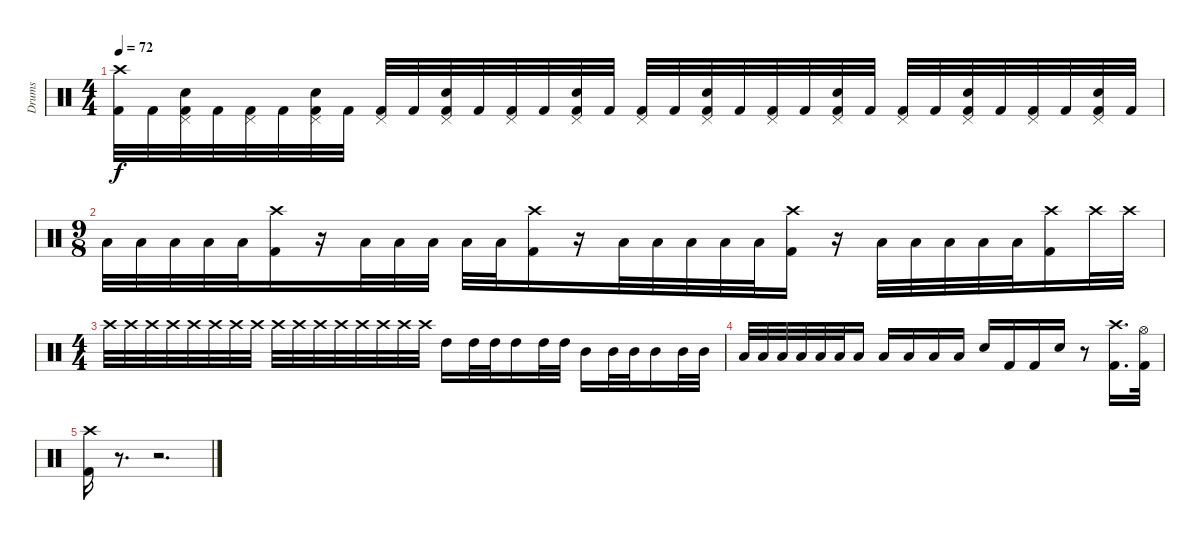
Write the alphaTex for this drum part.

\track ("Drums" "Drums") {instrument percussion}
\staff {score}
\articulation defaults
\ts (4 4)
\tempo 72
\clef neutral
\ks c
("Crash high (hit)" "Kick (hit) 2").32{dy f} "Kick (hit) 2".32 ("Pedal Hi-Hat (hit)" "Snare (hit) 2" "Kick (hit) 2").32 "Kick (hit) 2".32 ("Pedal Hi-Hat (hit)" "Kick (hit) 2").32 "Kick (hit) 2".32 ("Pedal Hi-Hat (hit)" "Snare (hit) 2" "Kick (hit) 2").32 "Kick (hit) 2".32 ("Pedal Hi-Hat (hit)" "Kick (hit) 2").32 "Kick (hit) 2".32 ("Pedal Hi-Hat (hit)" "Snare (hit) 2" "Kick (hit) 2").32 "Kick (hit) 2".32 ("Pedal Hi-Hat (hit)" "Kick (hit) 2").32 "Kick (hit) 2".32 ("Pedal Hi-Hat (hit)" "Snare (hit) 2" "Kick (hit) 2").32 "Kick (hit) 2".32 ("Pedal Hi-Hat (hit)" "Kick (hit) 2").32 "Kick (hit) 2".32 ("Pedal Hi-Hat (hit)" "Snare (hit) 2" "Kick (hit) 2").32 "Kick (hit) 2".32 ("Pedal Hi-Hat (hit)" "Kick (hit) 2").32 "Kick (hit) 2".32 ("Pedal Hi-Hat (hit)" "Snare (hit) 2" "Kick (hit) 2").32 "Kick (hit) 2".32 ("Pedal Hi-Hat (hit)" "Kick (hit) 2").32 "Kick (hit) 2".32 ("Pedal Hi-Hat (hit)" "Snare (hit) 2" "Kick (hit) 2").32 "Kick (hit) 2".32 ("Pedal Hi-Hat (hit)" "Kick (hit) 2").32 "Kick (hit) 2".32 ("Pedal Hi-Hat (hit)" "Snare (hit) 2" "Kick (hit) 2").32 "Kick (hit) 2".32 |
\ts (9 8)
"Low Tom (hit)".32 "Low Tom (hit)".32 "Low Tom (hit)".32 "Low Tom (hit)".32 "Low Tom (hit)".32 ("Crash high (hit)" "Kick (hit) 2").16 r.16 "Low Tom (hit)".32 "Low Tom (hit)".32 "Low Tom (hit)".32 "Low Tom (hit)".32 "Low Tom (hit)".32 ("Crash high (hit)" "Kick (hit) 2").16 r.16 "Low Tom (hit)".32 "Low Tom (hit)".32 "Low Tom (hit)".32 "Low Tom (hit)".32 "Low Tom (hit)".32 ("Crash high (hit)" "Kick (hit) 2").16 r.16 "Low Tom (hit)".32 "Low Tom (hit)".32 "Low Tom (hit)".32 "Low Tom (hit)".32 "Low Tom (hit)".32 ("Crash high (hit)" "Kick (hit) 2").16 "Crash high (hit)".32 "Crash high (hit)".32 |
\ts (4 4)
"Crash high (hit)".32 "Crash high (hit)".32 "Crash high (hit)".32 "Crash high (hit)".32 "Crash high (hit)".32 "Crash high (hit)".32 "Crash high (hit)".32 "Crash high (hit)".32 "Crash high (hit)".32 "Crash high (hit)".32 "Crash high (hit)".32 "Crash high (hit)".32 "Crash high (hit)".32 "Crash high (hit)".32 "Crash high (hit)".32 "Crash high (hit)".32 "High Tom (hit)".16 "High Tom (hit)".32 "High Tom (hit)".32 "High Tom (hit)".16 "High Tom (hit)".32 "High Tom (hit)".32 "Mid Tom (hit)".16 "Mid Tom (hit)".32 "Mid Tom (hit)".32 "Mid Tom (hit)".16 "Mid Tom (hit)".32 "Mid Tom (hit)".32 |
"Low Tom (hit)".32 "Low Tom (hit)".32 "Low Tom (hit)".32 "Low Tom (hit)".32 "Low Tom (hit)".32 "Low Tom (hit)".32 "Low Tom (hit)".16 "Low Tom (hit)".16 "Low Tom (hit)".16 "Low Tom (hit)".16 "Low Tom (hit)".16 "Snare (hit) 2".16 "Kick (hit) 2".16 "Kick (hit) 2".16 "Snare (hit) 2".16 r.8 ("Crash high (hit)" "Kick (hit) 2").16{d} ("Hi-Hat (open)" "Kick (hit) 2").32 |
("Crash high (hit)" "Kick (hit) 2").16 r.8{d} r.2{d}
